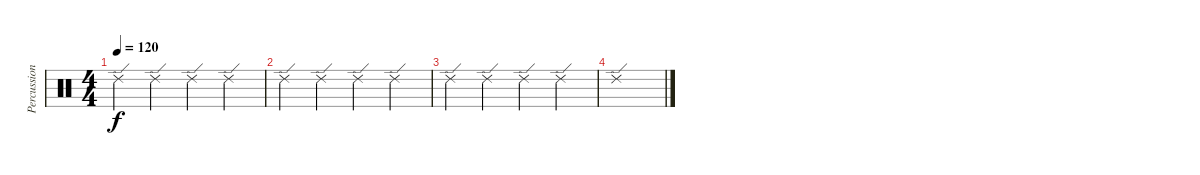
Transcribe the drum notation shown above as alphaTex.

\track ("Percussion" "Percussion") {instrument percussion}
\staff {score}
\articulation defaults
\ts (4 4)
\tempo 120
\clef neutral
\ks c "Ride (edge) 2".4{dy f} "Ride (edge) 2".4 "Ride (edge) 2".4 "Ride (edge) 2".4
|
"Ride (edge) 2".4 "Ride (edge) 2".4 "Ride (edge) 2".4 "Ride (edge) 2".4 |
"Ride (edge) 2".4 "Ride (edge) 2".4 "Ride (edge) 2".4 "Ride (edge) 2".4 |
"Ride (edge) 2".1
